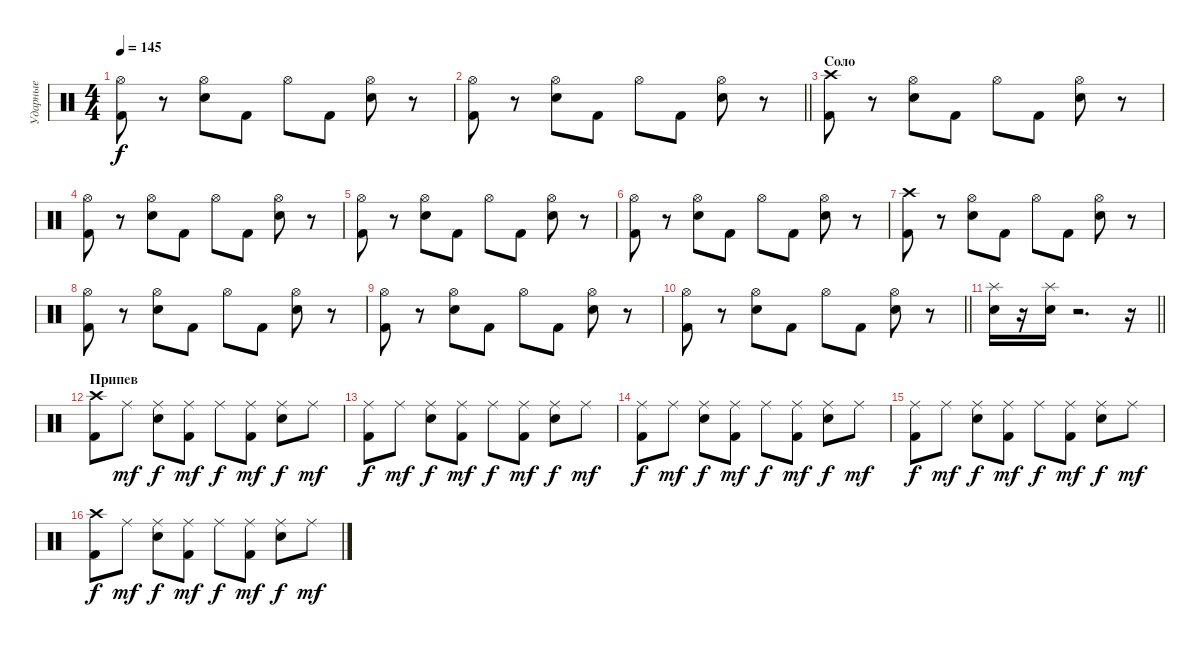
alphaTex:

\track ("Ударные" "Ударные") {instrument percussion}
\staff {score}
\articulation defaults
\ts (4 4)
\tempo 145
\clef neutral
\ks c
("Hi-Hat (open)" "Kick (hit) 2").8{dy f} r.8 ("Hi-Hat (open)" "Snare (hit) 2").8 "Kick (hit) 2".8 "Hi-Hat (open)".8 "Kick (hit) 2".8 ("Hi-Hat (open)" "Snare (hit) 2").8 r.8 |
\barLineRight lightlight
("Hi-Hat (open)" "Kick (hit) 2").8 r.8 ("Hi-Hat (open)" "Snare (hit) 2").8 "Kick (hit) 2".8 "Hi-Hat (open)".8 "Kick (hit) 2".8 ("Hi-Hat (open)" "Snare (hit) 2").8 r.8 |
\section ("" "Соло")
("Crash high (hit)" "Kick (hit) 2").8 r.8 ("Hi-Hat (open)" "Snare (hit) 2").8 "Kick (hit) 2".8 "Hi-Hat (open)".8 "Kick (hit) 2".8 ("Hi-Hat (open)" "Snare (hit) 2").8 r.8 |
("Hi-Hat (open)" "Kick (hit) 2").8 r.8 ("Hi-Hat (open)" "Snare (hit) 2").8 "Kick (hit) 2".8 "Hi-Hat (open)".8 "Kick (hit) 2".8 ("Hi-Hat (open)" "Snare (hit) 2").8 r.8 |
("Hi-Hat (open)" "Kick (hit) 2").8 r.8 ("Hi-Hat (open)" "Snare (hit) 2").8 "Kick (hit) 2".8 "Hi-Hat (open)".8 "Kick (hit) 2".8 ("Hi-Hat (open)" "Snare (hit) 2").8 r.8 |
("Hi-Hat (open)" "Kick (hit) 2").8 r.8 ("Hi-Hat (open)" "Snare (hit) 2").8 "Kick (hit) 2".8 "Hi-Hat (open)".8 "Kick (hit) 2".8 ("Hi-Hat (open)" "Snare (hit) 2").8 r.8 |
("Crash high (hit)" "Kick (hit) 2").8 r.8 ("Hi-Hat (open)" "Snare (hit) 2").8 "Kick (hit) 2".8 "Hi-Hat (open)".8 "Kick (hit) 2".8 ("Hi-Hat (open)" "Snare (hit) 2").8 r.8 |
("Hi-Hat (open)" "Kick (hit) 2").8 r.8 ("Hi-Hat (open)" "Snare (hit) 2").8 "Kick (hit) 2".8 "Hi-Hat (open)".8 "Kick (hit) 2".8 ("Hi-Hat (open)" "Snare (hit) 2").8 r.8 |
("Hi-Hat (open)" "Kick (hit) 2").8 r.8 ("Hi-Hat (open)" "Snare (hit) 2").8 "Kick (hit) 2".8 "Hi-Hat (open)".8 "Kick (hit) 2".8 ("Hi-Hat (open)" "Snare (hit) 2").8 r.8 |
\barLineRight lightlight
("Hi-Hat (open)" "Kick (hit) 2").8 r.8 ("Hi-Hat (open)" "Snare (hit) 2").8 "Kick (hit) 2".8 "Hi-Hat (open)".8 "Kick (hit) 2".8 ("Hi-Hat (open)" "Snare (hit) 2").8 r.8 |
\barLineRight lightlight
("Electric Snare (hit)" "Splash (hit)").16 r.16 ("Electric Snare (hit)" "Splash (hit)").16 r.2{d} r.16 |
\section ("" "Припев")
("Crash high (hit)" "Kick (hit) 2").8 "Ride (middle)".8{dy mf} ("Ride (middle)" "Snare (hit) 2").8{dy f} ("Ride (middle)" "Kick (hit) 2").8{dy mf} "Ride (middle)".8{dy f} ("Ride (middle)" "Kick (hit) 2").8{dy mf} ("Ride (middle)" "Snare (hit) 2").8{dy f} "Ride (middle)".8{dy mf} |
("Ride (middle)" "Kick (hit) 2").8{dy f} "Ride (middle)".8{dy mf} ("Ride (middle)" "Snare (hit) 2").8{dy f} ("Ride (middle)" "Kick (hit) 2").8{dy mf} "Ride (middle)".8{dy f} ("Ride (middle)" "Kick (hit) 2").8{dy mf} ("Ride (middle)" "Snare (hit) 2").8{dy f} "Ride (middle)".8{dy mf} |
("Ride (middle)" "Kick (hit) 2").8{dy f} "Ride (middle)".8{dy mf} ("Ride (middle)" "Snare (hit) 2").8{dy f} ("Ride (middle)" "Kick (hit) 2").8{dy mf} "Ride (middle)".8{dy f} ("Ride (middle)" "Kick (hit) 2").8{dy mf} ("Ride (middle)" "Snare (hit) 2").8{dy f} "Ride (middle)".8{dy mf} |
("Ride (middle)" "Kick (hit) 2").8{dy f} "Ride (middle)".8{dy mf} ("Ride (middle)" "Snare (hit) 2").8{dy f} ("Ride (middle)" "Kick (hit) 2").8{dy mf} "Ride (middle)".8{dy f} ("Ride (middle)" "Kick (hit) 2").8{dy mf} ("Ride (middle)" "Snare (hit) 2").8{dy f} "Ride (middle)".8{dy mf} |
("Crash high (hit)" "Kick (hit) 2").8{dy f} "Ride (middle)".8{dy mf} ("Ride (middle)" "Snare (hit) 2").8{dy f} ("Ride (middle)" "Kick (hit) 2").8{dy mf} "Ride (middle)".8{dy f} ("Ride (middle)" "Kick (hit) 2").8{dy mf} ("Ride (middle)" "Snare (hit) 2").8{dy f} "Ride (middle)".8{dy mf}
